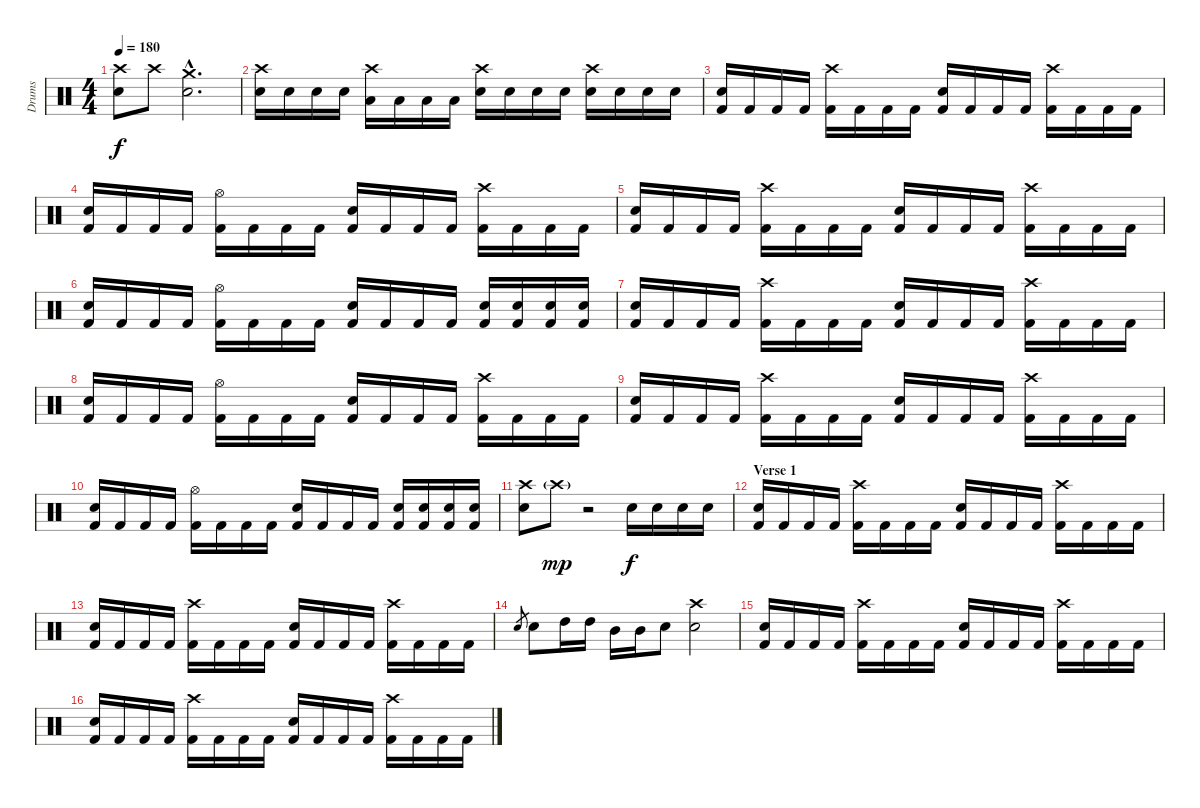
\track ("Drums" "Drums") {instrument percussion}
\staff {score}
\articulation defaults
\ts (4 4)
\tempo 180
\clef neutral
\ks c
("Crash high (hit)" "Electric Snare (hit)").8{dy f} "Crash high (hit)".8 ("Crash medium (hit)"{hac} "Electric Snare (hit)"{hac}).2{d} |
("Electric Snare (hit)" "Crash high (hit)").16 "Electric Snare (hit)".16 "Electric Snare (hit)".16 "Electric Snare (hit)".16 ("Low Tom (hit)" "Crash high (hit)").16 "Low Tom (hit)".16 "Low Tom (hit)".16 "Low Tom (hit)".16 ("Electric Snare (hit)" "Crash high (hit)").16 "Electric Snare (hit)".16 "Electric Snare (hit)".16 "Electric Snare (hit)".16 ("Electric Snare (hit)" "Crash high (hit)").16 "Electric Snare (hit)".16 "Electric Snare (hit)".16 "Electric Snare (hit)".16 |
("Kick (hit) 2" "Electric Snare (hit)").16 "Kick (hit) 2".16 "Kick (hit) 2".16 "Kick (hit) 2".16 ("Kick (hit) 2" "Crash high (hit)").16 "Kick (hit) 2".16 "Kick (hit) 2".16 "Kick (hit) 2".16 ("Kick (hit) 2" "Electric Snare (hit)").16 "Kick (hit) 2".16 "Kick (hit) 2".16 "Kick (hit) 2".16 ("Kick (hit) 2" "Crash high (hit)").16 "Kick (hit) 2".16 "Kick (hit) 2".16 "Kick (hit) 2".16 |
("Kick (hit) 2" "Electric Snare (hit)").16 "Kick (hit) 2".16 "Kick (hit) 2".16 "Kick (hit) 2".16 ("Kick (hit) 2" "Hi-Hat (open)").16 "Kick (hit) 2".16 "Kick (hit) 2".16 "Kick (hit) 2".16 ("Kick (hit) 2" "Electric Snare (hit)").16 "Kick (hit) 2".16 "Kick (hit) 2".16 "Kick (hit) 2".16 ("Kick (hit) 2" "Crash high (hit)").16 "Kick (hit) 2".16 "Kick (hit) 2".16 "Kick (hit) 2".16 |
("Kick (hit) 2" "Electric Snare (hit)").16 "Kick (hit) 2".16 "Kick (hit) 2".16 "Kick (hit) 2".16 ("Kick (hit) 2" "Crash high (hit)").16 "Kick (hit) 2".16 "Kick (hit) 2".16 "Kick (hit) 2".16 ("Kick (hit) 2" "Electric Snare (hit)").16 "Kick (hit) 2".16 "Kick (hit) 2".16 "Kick (hit) 2".16 ("Kick (hit) 2" "Crash high (hit)").16 "Kick (hit) 2".16 "Kick (hit) 2".16 "Kick (hit) 2".16 |
("Kick (hit) 2" "Electric Snare (hit)").16 "Kick (hit) 2".16 "Kick (hit) 2".16 "Kick (hit) 2".16 ("Kick (hit) 2" "Hi-Hat (open)").16 "Kick (hit) 2".16 "Kick (hit) 2".16 "Kick (hit) 2".16 ("Kick (hit) 2" "Electric Snare (hit)").16 "Kick (hit) 2".16 "Kick (hit) 2".16 "Kick (hit) 2".16 ("Kick (hit) 2" "Electric Snare (hit)").16 ("Kick (hit) 2" "Electric Snare (hit)").16 ("Kick (hit) 2" "Electric Snare (hit)").16 ("Kick (hit) 2" "Electric Snare (hit)").16 |
("Kick (hit) 2" "Electric Snare (hit)").16 "Kick (hit) 2".16 "Kick (hit) 2".16 "Kick (hit) 2".16 ("Kick (hit) 2" "Crash high (hit)").16 "Kick (hit) 2".16 "Kick (hit) 2".16 "Kick (hit) 2".16 ("Kick (hit) 2" "Electric Snare (hit)").16 "Kick (hit) 2".16 "Kick (hit) 2".16 "Kick (hit) 2".16 ("Kick (hit) 2" "Crash high (hit)").16 "Kick (hit) 2".16 "Kick (hit) 2".16 "Kick (hit) 2".16 |
("Kick (hit) 2" "Electric Snare (hit)").16 "Kick (hit) 2".16 "Kick (hit) 2".16 "Kick (hit) 2".16 ("Kick (hit) 2" "Hi-Hat (open)").16 "Kick (hit) 2".16 "Kick (hit) 2".16 "Kick (hit) 2".16 ("Kick (hit) 2" "Electric Snare (hit)").16 "Kick (hit) 2".16 "Kick (hit) 2".16 "Kick (hit) 2".16 ("Kick (hit) 2" "Crash high (hit)").16 "Kick (hit) 2".16 "Kick (hit) 2".16 "Kick (hit) 2".16 |
("Kick (hit) 2" "Electric Snare (hit)").16 "Kick (hit) 2".16 "Kick (hit) 2".16 "Kick (hit) 2".16 ("Kick (hit) 2" "Crash high (hit)").16 "Kick (hit) 2".16 "Kick (hit) 2".16 "Kick (hit) 2".16 ("Kick (hit) 2" "Electric Snare (hit)").16 "Kick (hit) 2".16 "Kick (hit) 2".16 "Kick (hit) 2".16 ("Kick (hit) 2" "Crash high (hit)").16 "Kick (hit) 2".16 "Kick (hit) 2".16 "Kick (hit) 2".16 |
("Kick (hit) 2" "Electric Snare (hit)").16 "Kick (hit) 2".16 "Kick (hit) 2".16 "Kick (hit) 2".16 ("Kick (hit) 2" "Hi-Hat (open)").16 "Kick (hit) 2".16 "Kick (hit) 2".16 "Kick (hit) 2".16 ("Kick (hit) 2" "Electric Snare (hit)").16 "Kick (hit) 2".16 "Kick (hit) 2".16 "Kick (hit) 2".16 ("Kick (hit) 2" "Electric Snare (hit)").16 ("Kick (hit) 2" "Electric Snare (hit)").16 ("Kick (hit) 2" "Electric Snare (hit)").16 ("Kick (hit) 2" "Electric Snare (hit)").16 |
("Electric Snare (hit)" "Crash high (hit)").8 "Crash high (hit)"{g}.8{dy mp} r.2 "Electric Snare (hit)".16{dy f} "Electric Snare (hit)".16 "Electric Snare (hit)".16 "Electric Snare (hit)".16 |
\section ("" "Verse 1")
("Kick (hit) 2" "Electric Snare (hit)").16 "Kick (hit) 2".16 "Kick (hit) 2".16 "Kick (hit) 2".16 ("Kick (hit) 2" "Crash high (hit)").16 "Kick (hit) 2".16 "Kick (hit) 2".16 "Kick (hit) 2".16 ("Kick (hit) 2" "Electric Snare (hit)").16 "Kick (hit) 2".16 "Kick (hit) 2".16 "Kick (hit) 2".16 ("Kick (hit) 2" "Crash high (hit)").16 "Kick (hit) 2".16 "Kick (hit) 2".16 "Kick (hit) 2".16 |
("Kick (hit) 2" "Electric Snare (hit)").16 "Kick (hit) 2".16 "Kick (hit) 2".16 "Kick (hit) 2".16 ("Kick (hit) 2" "Crash high (hit)").16 "Kick (hit) 2".16 "Kick (hit) 2".16 "Kick (hit) 2".16 ("Kick (hit) 2" "Electric Snare (hit)").16 "Kick (hit) 2".16 "Kick (hit) 2".16 "Kick (hit) 2".16 ("Kick (hit) 2" "Crash high (hit)").16 "Kick (hit) 2".16 "Kick (hit) 2".16 "Kick (hit) 2".16 |
"Electric Snare (hit)".8{gr} "Electric Snare (hit)".8 "High Tom (hit)".16 "High Tom (hit)".16 "Mid Tom (hit)".16 "Mid Tom (hit)".16 "Electric Snare (hit)".8 ("Crash high (hit)" "Electric Snare (hit)").2 |
("Kick (hit) 2" "Electric Snare (hit)").16 "Kick (hit) 2".16 "Kick (hit) 2".16 "Kick (hit) 2".16 ("Kick (hit) 2" "Crash high (hit)").16 "Kick (hit) 2".16 "Kick (hit) 2".16 "Kick (hit) 2".16 ("Kick (hit) 2" "Electric Snare (hit)").16 "Kick (hit) 2".16 "Kick (hit) 2".16 "Kick (hit) 2".16 ("Kick (hit) 2" "Crash high (hit)").16 "Kick (hit) 2".16 "Kick (hit) 2".16 "Kick (hit) 2".16 |
("Kick (hit) 2" "Electric Snare (hit)").16 "Kick (hit) 2".16 "Kick (hit) 2".16 "Kick (hit) 2".16 ("Kick (hit) 2" "Crash high (hit)").16 "Kick (hit) 2".16 "Kick (hit) 2".16 "Kick (hit) 2".16 ("Kick (hit) 2" "Electric Snare (hit)").16 "Kick (hit) 2".16 "Kick (hit) 2".16 "Kick (hit) 2".16 ("Kick (hit) 2" "Crash high (hit)").16 "Kick (hit) 2".16 "Kick (hit) 2".16 "Kick (hit) 2".16
